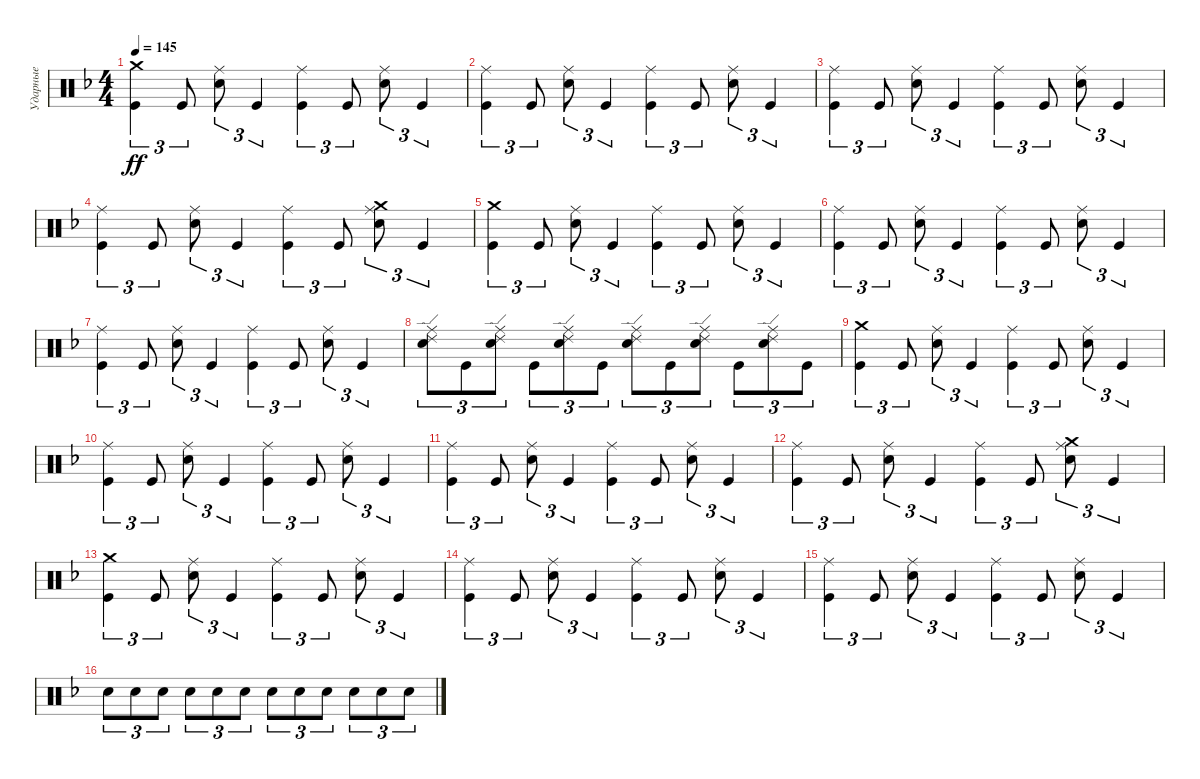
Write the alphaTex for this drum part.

\track ("Ударные" "Ударные") {instrument percussion}
\staff {score}
\articulation defaults
\ts (4 4)
\tempo 145
\clef neutral
\ks dminor
("Crash medium (hit)" "Kick (hit)").4{tu (3 2) dy ff} "Kick (hit)".8{tu (3 2)} ("Ride (middle)" "Electric Snare (hit)").8{tu (3 2)} "Kick (hit)".4{tu (3 2)} ("Ride (middle)" "Kick (hit)").4{tu (3 2)} "Kick (hit)".8{tu (3 2)} ("Ride (middle)" "Electric Snare (hit)").8{tu (3 2)} "Kick (hit)".4{tu (3 2)} |
("Ride (middle)" "Kick (hit)").4{tu (3 2)} "Kick (hit)".8{tu (3 2)} ("Ride (middle)" "Electric Snare (hit)").8{tu (3 2)} "Kick (hit)".4{tu (3 2)} ("Ride (middle)" "Kick (hit)").4{tu (3 2)} "Kick (hit)".8{tu (3 2)} ("Ride (middle)" "Electric Snare (hit)").8{tu (3 2)} "Kick (hit)".4{tu (3 2)} |
("Ride (middle)" "Kick (hit)").4{tu (3 2)} "Kick (hit)".8{tu (3 2)} ("Ride (middle)" "Electric Snare (hit)").8{tu (3 2)} "Kick (hit)".4{tu (3 2)} ("Ride (middle)" "Kick (hit)").4{tu (3 2)} "Kick (hit)".8{tu (3 2)} ("Ride (middle)" "Electric Snare (hit)").8{tu (3 2)} "Kick (hit)".4{tu (3 2)} |
("Ride (middle)" "Kick (hit)").4{tu (3 2)} "Kick (hit)".8{tu (3 2)} ("Ride (middle)" "Electric Snare (hit)").8{tu (3 2)} "Kick (hit)".4{tu (3 2)} ("Ride (middle)" "Kick (hit)").4{tu (3 2)} "Kick (hit)".8{tu (3 2)} ("Ride (middle)" "Electric Snare (hit)" "Crash medium (hit)").8{tu (3 2)} "Kick (hit)".4{tu (3 2)} |
("Crash medium (hit)" "Kick (hit)").4{tu (3 2)} "Kick (hit)".8{tu (3 2)} ("Ride (middle)" "Electric Snare (hit)").8{tu (3 2)} "Kick (hit)".4{tu (3 2)} ("Ride (middle)" "Kick (hit)").4{tu (3 2)} "Kick (hit)".8{tu (3 2)} ("Ride (middle)" "Electric Snare (hit)").8{tu (3 2)} "Kick (hit)".4{tu (3 2)} |
("Ride (middle)" "Kick (hit)").4{tu (3 2)} "Kick (hit)".8{tu (3 2)} ("Ride (middle)" "Electric Snare (hit)").8{tu (3 2)} "Kick (hit)".4{tu (3 2)} ("Ride (middle)" "Kick (hit)").4{tu (3 2)} "Kick (hit)".8{tu (3 2)} ("Ride (middle)" "Electric Snare (hit)").8{tu (3 2)} "Kick (hit)".4{tu (3 2)} |
("Ride (middle)" "Kick (hit)").4{tu (3 2)} "Kick (hit)".8{tu (3 2)} ("Ride (middle)" "Electric Snare (hit)").8{tu (3 2)} "Kick (hit)".4{tu (3 2)} ("Ride (middle)" "Kick (hit)").4{tu (3 2)} "Kick (hit)".8{tu (3 2)} ("Ride (middle)" "Electric Snare (hit)").8{tu (3 2)} "Kick (hit)".4{tu (3 2)} |
("Ride (edge) 2" "Electric Snare (hit)" "Ride (middle)").8{tu (3 2)} "Kick (hit)".8{tu (3 2)} ("Ride (edge) 2" "Electric Snare (hit)" "Ride (middle)").8{tu (3 2)} "Kick (hit)".8{tu (3 2)} ("Ride (edge) 2" "Electric Snare (hit)" "Ride (middle)").8{tu (3 2)} "Kick (hit)".8{tu (3 2)} ("Ride (edge) 2" "Electric Snare (hit)" "Ride (middle)").8{tu (3 2)} "Kick (hit)".8{tu (3 2)} ("Ride (edge) 2" "Electric Snare (hit)" "Ride (middle)").8{tu (3 2)} "Kick (hit)".8{tu (3 2)} ("Ride (edge) 2" "Electric Snare (hit)" "Ride (middle)").8{tu (3 2)} "Kick (hit)".8{tu (3 2)} |
("Crash medium (hit)" "Kick (hit)").4{tu (3 2)} "Kick (hit)".8{tu (3 2)} ("Ride (middle)" "Electric Snare (hit)").8{tu (3 2)} "Kick (hit)".4{tu (3 2)} ("Ride (middle)" "Kick (hit)").4{tu (3 2)} "Kick (hit)".8{tu (3 2)} ("Ride (middle)" "Electric Snare (hit)").8{tu (3 2)} "Kick (hit)".4{tu (3 2)} |
("Ride (middle)" "Kick (hit)").4{tu (3 2)} "Kick (hit)".8{tu (3 2)} ("Ride (middle)" "Electric Snare (hit)").8{tu (3 2)} "Kick (hit)".4{tu (3 2)} ("Ride (middle)" "Kick (hit)").4{tu (3 2)} "Kick (hit)".8{tu (3 2)} ("Ride (middle)" "Electric Snare (hit)").8{tu (3 2)} "Kick (hit)".4{tu (3 2)} |
("Ride (middle)" "Kick (hit)").4{tu (3 2)} "Kick (hit)".8{tu (3 2)} ("Ride (middle)" "Electric Snare (hit)").8{tu (3 2)} "Kick (hit)".4{tu (3 2)} ("Ride (middle)" "Kick (hit)").4{tu (3 2)} "Kick (hit)".8{tu (3 2)} ("Ride (middle)" "Electric Snare (hit)").8{tu (3 2)} "Kick (hit)".4{tu (3 2)} |
("Ride (middle)" "Kick (hit)").4{tu (3 2)} "Kick (hit)".8{tu (3 2)} ("Ride (middle)" "Electric Snare (hit)").8{tu (3 2)} "Kick (hit)".4{tu (3 2)} ("Ride (middle)" "Kick (hit)").4{tu (3 2)} "Kick (hit)".8{tu (3 2)} ("Ride (middle)" "Electric Snare (hit)" "Crash medium (hit)").8{tu (3 2)} "Kick (hit)".4{tu (3 2)} |
("Crash medium (hit)" "Kick (hit)").4{tu (3 2)} "Kick (hit)".8{tu (3 2)} ("Ride (middle)" "Electric Snare (hit)").8{tu (3 2)} "Kick (hit)".4{tu (3 2)} ("Ride (middle)" "Kick (hit)").4{tu (3 2)} "Kick (hit)".8{tu (3 2)} ("Ride (middle)" "Electric Snare (hit)").8{tu (3 2)} "Kick (hit)".4{tu (3 2)} |
("Ride (middle)" "Kick (hit)").4{tu (3 2)} "Kick (hit)".8{tu (3 2)} ("Ride (middle)" "Electric Snare (hit)").8{tu (3 2)} "Kick (hit)".4{tu (3 2)} ("Ride (middle)" "Kick (hit)").4{tu (3 2)} "Kick (hit)".8{tu (3 2)} ("Ride (middle)" "Electric Snare (hit)").8{tu (3 2)} "Kick (hit)".4{tu (3 2)} |
("Ride (middle)" "Kick (hit)").4{tu (3 2)} "Kick (hit)".8{tu (3 2)} ("Ride (middle)" "Electric Snare (hit)").8{tu (3 2)} "Kick (hit)".4{tu (3 2)} ("Ride (middle)" "Kick (hit)").4{tu (3 2)} "Kick (hit)".8{tu (3 2)} ("Ride (middle)" "Electric Snare (hit)").8{tu (3 2)} "Kick (hit)".4{tu (3 2)} |
"Electric Snare (hit)".8{tu (3 2)} "Electric Snare (hit)".8{tu (3 2)} "Electric Snare (hit)".8{tu (3 2)} "Electric Snare (hit)".8{tu (3 2)} "Electric Snare (hit)".8{tu (3 2)} "Electric Snare (hit)".8{tu (3 2)} "Electric Snare (hit)".8{tu (3 2)} "Electric Snare (hit)".8{tu (3 2)} "Electric Snare (hit)".8{tu (3 2)} "Electric Snare (hit)".8{tu (3 2)} "Electric Snare (hit)".8{tu (3 2)} "Electric Snare (hit)".8{tu (3 2)}
